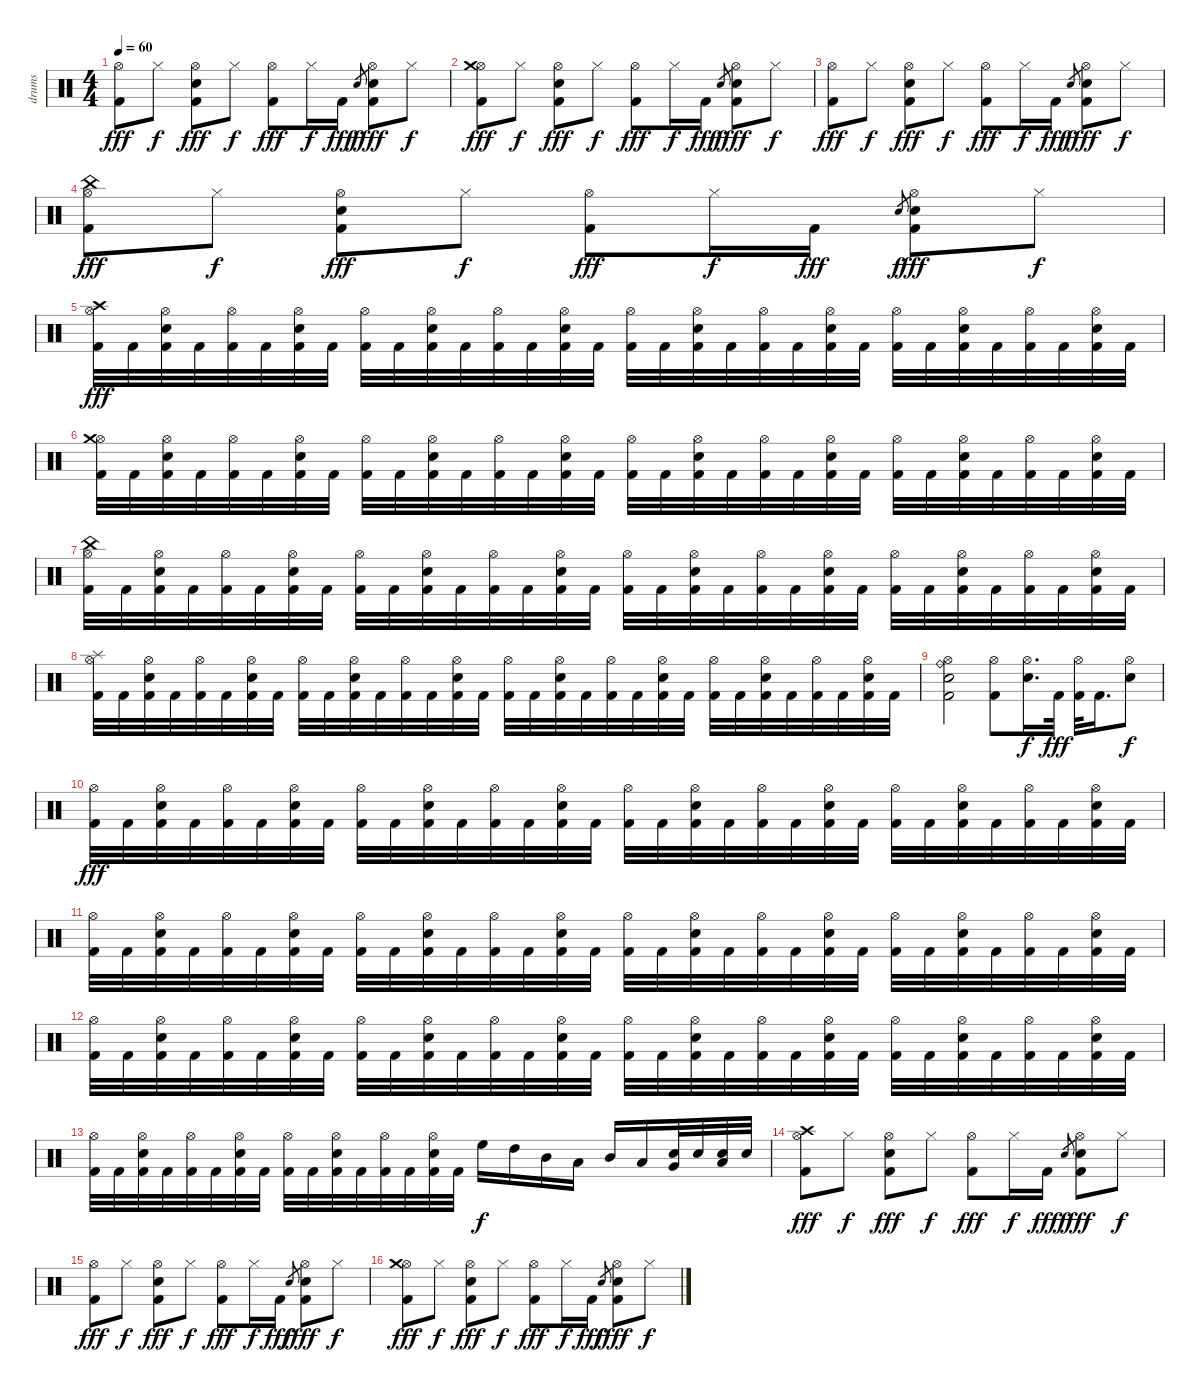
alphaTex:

\track ("drums" "drums") {instrument percussion}
\staff {score}
\articulation defaults
\ts (4 4)
\tempo 60
\clef neutral
\ks c
("Kick (hit) 2" "Hi-Hat (open)").8{dy fff} "Hi-Hat (closed)".8{dy f} ("Kick (hit) 2" "Hi-Hat (open)" "Electric Snare (hit)").8{dy fff} "Hi-Hat (closed)".8{dy f} ("Kick (hit) 2" "Hi-Hat (open)").8{dy fff} "Hi-Hat (closed)".16{dy f} "Kick (hit) 2".16{dy fff} "Electric Snare (hit)".8{gr dy f} ("Kick (hit) 2" "Hi-Hat (open)" "Electric Snare (hit)").8{dy fff} "Hi-Hat (closed)".8{dy f} |
("Kick (hit) 2" "Hi-Hat (open)" "Crash medium (hit)").8{dy fff} "Hi-Hat (closed)".8{dy f} ("Kick (hit) 2" "Hi-Hat (open)" "Electric Snare (hit)").8{dy fff} "Hi-Hat (closed)".8{dy f} ("Kick (hit) 2" "Hi-Hat (open)").8{dy fff} "Hi-Hat (closed)".16{dy f} "Kick (hit) 2".16{dy fff} "Electric Snare (hit)".8{gr dy f} ("Kick (hit) 2" "Hi-Hat (open)" "Electric Snare (hit)").8{dy fff} "Hi-Hat (closed)".8{dy f} |
("Kick (hit) 2" "Hi-Hat (open)").8{dy fff} "Hi-Hat (closed)".8{dy f} ("Kick (hit) 2" "Hi-Hat (open)" "Electric Snare (hit)").8{dy fff} "Hi-Hat (closed)".8{dy f} ("Kick (hit) 2" "Hi-Hat (open)").8{dy fff} "Hi-Hat (closed)".16{dy f} "Kick (hit) 2".16{dy fff} "Electric Snare (hit)".8{gr dy f} ("Kick (hit) 2" "Hi-Hat (open)" "Electric Snare (hit)").8{dy fff} "Hi-Hat (closed)".8{dy f} |
("Kick (hit) 2" "Hi-Hat (open)" "China (hit)").8{dy fff} "Hi-Hat (closed)".8{dy f} ("Kick (hit) 2" "Hi-Hat (open)" "Electric Snare (hit)").8{dy fff} "Hi-Hat (closed)".8{dy f} ("Kick (hit) 2" "Hi-Hat (open)").8{dy fff} "Hi-Hat (closed)".16{dy f} "Kick (hit) 2".16{dy fff} "Electric Snare (hit)".8{gr dy f} ("Kick (hit) 2" "Hi-Hat (open)" "Electric Snare (hit)").8{dy fff} "Hi-Hat (closed)".8{dy f} |
("Kick (hit) 2" "Hi-Hat (open)" "Crash high (hit)").32{dy fff} "Kick (hit) 2".32 ("Kick (hit) 2" "Hi-Hat (open)" "Electric Snare (hit)").32 "Kick (hit) 2".32 ("Kick (hit) 2" "Hi-Hat (open)").32 "Kick (hit) 2".32 ("Kick (hit) 2" "Hi-Hat (open)" "Electric Snare (hit)").32 "Kick (hit) 2".32 ("Kick (hit) 2" "Hi-Hat (open)").32 "Kick (hit) 2".32 ("Kick (hit) 2" "Hi-Hat (open)" "Electric Snare (hit)").32 "Kick (hit) 2".32 ("Kick (hit) 2" "Hi-Hat (open)").32 "Kick (hit) 2".32 ("Kick (hit) 2" "Hi-Hat (open)" "Electric Snare (hit)").32 "Kick (hit) 2".32 ("Kick (hit) 2" "Hi-Hat (open)").32 "Kick (hit) 2".32 ("Kick (hit) 2" "Hi-Hat (open)" "Electric Snare (hit)").32 "Kick (hit) 2".32 ("Kick (hit) 2" "Hi-Hat (open)").32 "Kick (hit) 2".32 ("Kick (hit) 2" "Hi-Hat (open)" "Electric Snare (hit)").32 "Kick (hit) 2".32 ("Kick (hit) 2" "Hi-Hat (open)").32 "Kick (hit) 2".32 ("Kick (hit) 2" "Hi-Hat (open)" "Electric Snare (hit)").32 "Kick (hit) 2".32 ("Kick (hit) 2" "Hi-Hat (open)").32 "Kick (hit) 2".32 ("Kick (hit) 2" "Hi-Hat (open)" "Electric Snare (hit)").32 "Kick (hit) 2".32 |
("Kick (hit) 2" "Hi-Hat (open)" "Crash medium (hit)").32 "Kick (hit) 2".32 ("Kick (hit) 2" "Hi-Hat (open)" "Electric Snare (hit)").32 "Kick (hit) 2".32 ("Kick (hit) 2" "Hi-Hat (open)").32 "Kick (hit) 2".32 ("Kick (hit) 2" "Hi-Hat (open)" "Electric Snare (hit)").32 "Kick (hit) 2".32 ("Kick (hit) 2" "Hi-Hat (open)").32 "Kick (hit) 2".32 ("Kick (hit) 2" "Hi-Hat (open)" "Electric Snare (hit)").32 "Kick (hit) 2".32 ("Kick (hit) 2" "Hi-Hat (open)").32 "Kick (hit) 2".32 ("Kick (hit) 2" "Hi-Hat (open)" "Electric Snare (hit)").32 "Kick (hit) 2".32 ("Kick (hit) 2" "Hi-Hat (open)").32 "Kick (hit) 2".32 ("Kick (hit) 2" "Hi-Hat (open)" "Electric Snare (hit)").32 "Kick (hit) 2".32 ("Kick (hit) 2" "Hi-Hat (open)").32 "Kick (hit) 2".32 ("Kick (hit) 2" "Hi-Hat (open)" "Electric Snare (hit)").32 "Kick (hit) 2".32 ("Kick (hit) 2" "Hi-Hat (open)").32 "Kick (hit) 2".32 ("Kick (hit) 2" "Hi-Hat (open)" "Electric Snare (hit)").32 "Kick (hit) 2".32 ("Kick (hit) 2" "Hi-Hat (open)").32 "Kick (hit) 2".32 ("Kick (hit) 2" "Hi-Hat (open)" "Electric Snare (hit)").32 "Kick (hit) 2".32 |
("Kick (hit) 2" "Hi-Hat (open)" "China (hit)").32 "Kick (hit) 2".32 ("Kick (hit) 2" "Hi-Hat (open)" "Electric Snare (hit)").32 "Kick (hit) 2".32 ("Kick (hit) 2" "Hi-Hat (open)").32 "Kick (hit) 2".32 ("Kick (hit) 2" "Hi-Hat (open)" "Electric Snare (hit)").32 "Kick (hit) 2".32 ("Kick (hit) 2" "Hi-Hat (open)").32 "Kick (hit) 2".32 ("Kick (hit) 2" "Hi-Hat (open)" "Electric Snare (hit)").32 "Kick (hit) 2".32 ("Kick (hit) 2" "Hi-Hat (open)").32 "Kick (hit) 2".32 ("Kick (hit) 2" "Hi-Hat (open)" "Electric Snare (hit)").32 "Kick (hit) 2".32 ("Kick (hit) 2" "Hi-Hat (open)").32 "Kick (hit) 2".32 ("Kick (hit) 2" "Hi-Hat (open)" "Electric Snare (hit)").32 "Kick (hit) 2".32 ("Kick (hit) 2" "Hi-Hat (open)").32 "Kick (hit) 2".32 ("Kick (hit) 2" "Hi-Hat (open)" "Electric Snare (hit)").32 "Kick (hit) 2".32 ("Kick (hit) 2" "Hi-Hat (open)").32 "Kick (hit) 2".32 ("Kick (hit) 2" "Hi-Hat (open)" "Electric Snare (hit)").32 "Kick (hit) 2".32 ("Kick (hit) 2" "Hi-Hat (open)").32 "Kick (hit) 2".32 ("Kick (hit) 2" "Hi-Hat (open)" "Electric Snare (hit)").32 "Kick (hit) 2".32 |
("Kick (hit) 2" "Hi-Hat (open)" "Splash (hit)").32 "Kick (hit) 2".32 ("Kick (hit) 2" "Hi-Hat (open)" "Electric Snare (hit)").32 "Kick (hit) 2".32 ("Kick (hit) 2" "Hi-Hat (open)").32 "Kick (hit) 2".32 ("Kick (hit) 2" "Hi-Hat (open)" "Electric Snare (hit)").32 "Kick (hit) 2".32 ("Kick (hit) 2" "Hi-Hat (open)").32 "Kick (hit) 2".32 ("Kick (hit) 2" "Hi-Hat (open)" "Electric Snare (hit)").32 "Kick (hit) 2".32 ("Kick (hit) 2" "Hi-Hat (open)").32 "Kick (hit) 2".32 ("Kick (hit) 2" "Hi-Hat (open)" "Electric Snare (hit)").32 "Kick (hit) 2".32 ("Kick (hit) 2" "Hi-Hat (open)").32 "Kick (hit) 2".32 ("Kick (hit) 2" "Hi-Hat (open)" "Electric Snare (hit)").32 "Kick (hit) 2".32 ("Kick (hit) 2" "Hi-Hat (open)").32 "Kick (hit) 2".32 ("Kick (hit) 2" "Hi-Hat (open)" "Electric Snare (hit)").32 "Kick (hit) 2".32 ("Kick (hit) 2" "Hi-Hat (open)").32 "Kick (hit) 2".32 ("Kick (hit) 2" "Hi-Hat (open)" "Electric Snare (hit)").32 "Kick (hit) 2".32 ("Kick (hit) 2" "Hi-Hat (open)").32 "Kick (hit) 2".32 ("Kick (hit) 2" "Hi-Hat (open)" "Electric Snare (hit)").32 "Kick (hit) 2".32 |
("Kick (hit) 2" "Hi-Hat (open)" "Electric Snare (hit)" "Ride (bell)").2 ("Kick (hit) 2" "Hi-Hat (open)").8 ("Snare (hit) 2" "Hi-Hat (open)").16{d dy f} "Kick (hit) 2".32{dy fff} ("Kick (hit) 2" "Hi-Hat (open)").32 "Kick (hit) 2".16{d} ("Snare (hit) 2" "Hi-Hat (open)").8{dy f} |
("Kick (hit) 2" "Hi-Hat (open)").32{dy fff} "Kick (hit) 2".32 ("Kick (hit) 2" "Hi-Hat (open)" "Electric Snare (hit)").32 "Kick (hit) 2".32 ("Kick (hit) 2" "Hi-Hat (open)").32 "Kick (hit) 2".32 ("Kick (hit) 2" "Hi-Hat (open)" "Electric Snare (hit)").32 "Kick (hit) 2".32 ("Kick (hit) 2" "Hi-Hat (open)").32 "Kick (hit) 2".32 ("Kick (hit) 2" "Hi-Hat (open)" "Electric Snare (hit)").32 "Kick (hit) 2".32 ("Kick (hit) 2" "Hi-Hat (open)").32 "Kick (hit) 2".32 ("Kick (hit) 2" "Hi-Hat (open)" "Electric Snare (hit)").32 "Kick (hit) 2".32 ("Kick (hit) 2" "Hi-Hat (open)").32 "Kick (hit) 2".32 ("Kick (hit) 2" "Hi-Hat (open)" "Electric Snare (hit)").32 "Kick (hit) 2".32 ("Kick (hit) 2" "Hi-Hat (open)").32 "Kick (hit) 2".32 ("Kick (hit) 2" "Hi-Hat (open)" "Electric Snare (hit)").32 "Kick (hit) 2".32 ("Kick (hit) 2" "Hi-Hat (open)").32 "Kick (hit) 2".32 ("Kick (hit) 2" "Hi-Hat (open)" "Electric Snare (hit)").32 "Kick (hit) 2".32 ("Kick (hit) 2" "Hi-Hat (open)").32 "Kick (hit) 2".32 ("Kick (hit) 2" "Hi-Hat (open)" "Electric Snare (hit)").32 "Kick (hit) 2".32 |
("Kick (hit) 2" "Hi-Hat (open)").32 "Kick (hit) 2".32 ("Kick (hit) 2" "Hi-Hat (open)" "Electric Snare (hit)").32 "Kick (hit) 2".32 ("Kick (hit) 2" "Hi-Hat (open)").32 "Kick (hit) 2".32 ("Kick (hit) 2" "Hi-Hat (open)" "Electric Snare (hit)").32 "Kick (hit) 2".32 ("Kick (hit) 2" "Hi-Hat (open)").32 "Kick (hit) 2".32 ("Kick (hit) 2" "Hi-Hat (open)" "Electric Snare (hit)").32 "Kick (hit) 2".32 ("Kick (hit) 2" "Hi-Hat (open)").32 "Kick (hit) 2".32 ("Kick (hit) 2" "Hi-Hat (open)" "Electric Snare (hit)").32 "Kick (hit) 2".32 ("Kick (hit) 2" "Hi-Hat (open)").32 "Kick (hit) 2".32 ("Kick (hit) 2" "Hi-Hat (open)" "Electric Snare (hit)").32 "Kick (hit) 2".32 ("Kick (hit) 2" "Hi-Hat (open)").32 "Kick (hit) 2".32 ("Kick (hit) 2" "Hi-Hat (open)" "Electric Snare (hit)").32 "Kick (hit) 2".32 ("Kick (hit) 2" "Hi-Hat (open)").32 "Kick (hit) 2".32 ("Kick (hit) 2" "Hi-Hat (open)" "Electric Snare (hit)").32 "Kick (hit) 2".32 ("Kick (hit) 2" "Hi-Hat (open)").32 "Kick (hit) 2".32 ("Kick (hit) 2" "Hi-Hat (open)" "Electric Snare (hit)").32 "Kick (hit) 2".32 |
("Kick (hit) 2" "Hi-Hat (open)").32 "Kick (hit) 2".32 ("Kick (hit) 2" "Hi-Hat (open)" "Electric Snare (hit)").32 "Kick (hit) 2".32 ("Kick (hit) 2" "Hi-Hat (open)").32 "Kick (hit) 2".32 ("Kick (hit) 2" "Hi-Hat (open)" "Electric Snare (hit)").32 "Kick (hit) 2".32 ("Kick (hit) 2" "Hi-Hat (open)").32 "Kick (hit) 2".32 ("Kick (hit) 2" "Hi-Hat (open)" "Electric Snare (hit)").32 "Kick (hit) 2".32 ("Kick (hit) 2" "Hi-Hat (open)").32 "Kick (hit) 2".32 ("Kick (hit) 2" "Hi-Hat (open)" "Electric Snare (hit)").32 "Kick (hit) 2".32 ("Kick (hit) 2" "Hi-Hat (open)").32 "Kick (hit) 2".32 ("Kick (hit) 2" "Hi-Hat (open)" "Electric Snare (hit)").32 "Kick (hit) 2".32 ("Kick (hit) 2" "Hi-Hat (open)").32 "Kick (hit) 2".32 ("Kick (hit) 2" "Hi-Hat (open)" "Electric Snare (hit)").32 "Kick (hit) 2".32 ("Kick (hit) 2" "Hi-Hat (open)").32 "Kick (hit) 2".32 ("Kick (hit) 2" "Hi-Hat (open)" "Electric Snare (hit)").32 "Kick (hit) 2".32 ("Kick (hit) 2" "Hi-Hat (open)").32 "Kick (hit) 2".32 ("Kick (hit) 2" "Hi-Hat (open)" "Electric Snare (hit)").32 "Kick (hit) 2".32 |
("Kick (hit) 2" "Hi-Hat (open)").32 "Kick (hit) 2".32 ("Kick (hit) 2" "Hi-Hat (open)" "Electric Snare (hit)").32 "Kick (hit) 2".32 ("Kick (hit) 2" "Hi-Hat (open)").32 "Kick (hit) 2".32 ("Kick (hit) 2" "Hi-Hat (open)" "Electric Snare (hit)").32 "Kick (hit) 2".32 ("Kick (hit) 2" "Hi-Hat (open)").32 "Kick (hit) 2".32 ("Kick (hit) 2" "Hi-Hat (open)" "Electric Snare (hit)").32 "Kick (hit) 2".32 ("Kick (hit) 2" "Hi-Hat (open)").32 "Kick (hit) 2".32 ("Kick (hit) 2" "Hi-Hat (open)" "Electric Snare (hit)").32 "Kick (hit) 2".32 "High Floor Tom (hit)".16{dy f} "High Tom (hit)".16 "Mid Tom (hit)".16 "Low Tom (hit)".16 "Mid Tom (hit)".16 "Low Tom (hit)".16 ("Electric Snare (hit)" "Very Low Tom (hit)").32 "Electric Snare (hit)".32 ("Electric Snare (hit)" "Low Floor Tom (hit)").32 "Electric Snare (hit)".32 |
("Kick (hit) 2" "Hi-Hat (open)" "Crash high (hit)").8{dy fff} "Hi-Hat (closed)".8{dy f} ("Kick (hit) 2" "Hi-Hat (open)" "Electric Snare (hit)").8{dy fff} "Hi-Hat (closed)".8{dy f} ("Kick (hit) 2" "Hi-Hat (open)").8{dy fff} "Hi-Hat (closed)".16{dy f} "Kick (hit) 2".16{dy fff} "Electric Snare (hit)".8{gr dy f} ("Kick (hit) 2" "Hi-Hat (open)" "Electric Snare (hit)").8{dy fff} "Hi-Hat (closed)".8{dy f} |
("Kick (hit) 2" "Hi-Hat (open)").8{dy fff} "Hi-Hat (closed)".8{dy f} ("Kick (hit) 2" "Hi-Hat (open)" "Electric Snare (hit)").8{dy fff} "Hi-Hat (closed)".8{dy f} ("Kick (hit) 2" "Hi-Hat (open)").8{dy fff} "Hi-Hat (closed)".16{dy f} "Kick (hit) 2".16{dy fff} "Electric Snare (hit)".8{gr dy f} ("Kick (hit) 2" "Hi-Hat (open)" "Electric Snare (hit)").8{dy fff} "Hi-Hat (closed)".8{dy f} |
("Kick (hit) 2" "Hi-Hat (open)" "Crash medium (hit)").8{dy fff} "Hi-Hat (closed)".8{dy f} ("Kick (hit) 2" "Hi-Hat (open)" "Electric Snare (hit)").8{dy fff} "Hi-Hat (closed)".8{dy f} ("Kick (hit) 2" "Hi-Hat (open)").8{dy fff} "Hi-Hat (closed)".16{dy f} "Kick (hit) 2".16{dy fff} "Electric Snare (hit)".8{gr dy f} ("Kick (hit) 2" "Hi-Hat (open)" "Electric Snare (hit)").8{dy fff} "Hi-Hat (closed)".8{dy f}
